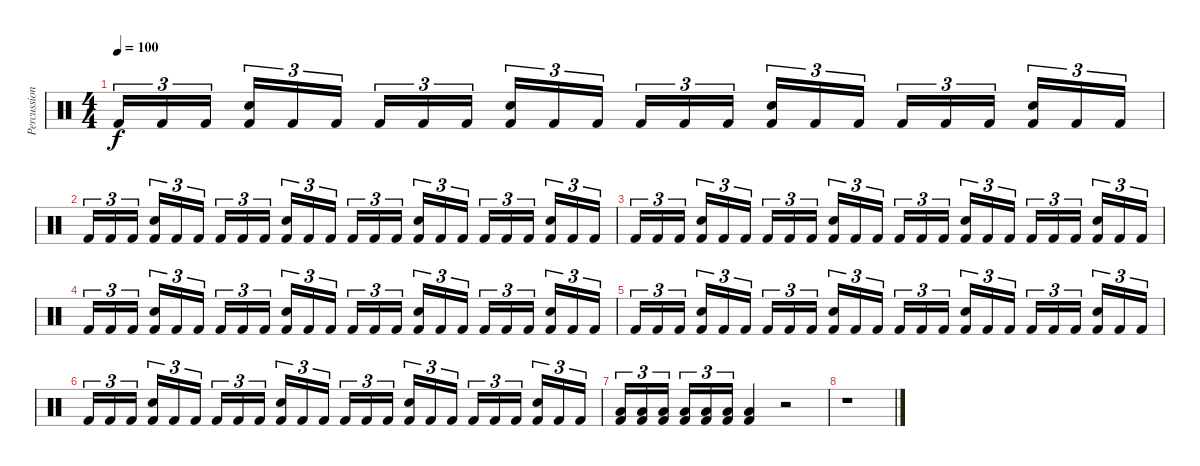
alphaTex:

\track ("Percussions" "Percussion") {instrument percussion}
\staff {score}
\articulation defaults
\ts (4 4)
\tempo 100
\clef neutral
\ks c "Kick (hit) 2".16{tu (3 2) dy f} "Kick (hit) 2".16{tu (3 2)} "Kick (hit) 2".16{tu (3 2)}
("Electric Snare (hit)" "Kick (hit) 2").16{tu (3 2)} "Kick (hit) 2".16{tu (3 2)} "Kick (hit) 2".16{tu (3 2)} "Kick (hit) 2".16{tu (3 2)} "Kick (hit) 2".16{tu (3 2)} "Kick (hit) 2".16{tu (3 2)} ("Electric Snare (hit)" "Kick (hit) 2").16{tu (3 2)} "Kick (hit) 2".16{tu (3 2)} "Kick (hit) 2".16{tu (3 2)} "Kick (hit) 2".16{tu (3 2)} "Kick (hit) 2".16{tu (3 2)} "Kick (hit) 2".16{tu (3 2)} ("Electric Snare (hit)" "Kick (hit) 2").16{tu (3 2)} "Kick (hit) 2".16{tu (3 2)} "Kick (hit) 2".16{tu (3 2)} "Kick (hit) 2".16{tu (3 2)} "Kick (hit) 2".16{tu (3 2)} "Kick (hit) 2".16{tu (3 2)} ("Electric Snare (hit)" "Kick (hit) 2").16{tu (3 2)} "Kick (hit) 2".16{tu (3 2)} "Kick (hit) 2".16{tu (3 2)} |
"Kick (hit) 2".16{tu (3 2)} "Kick (hit) 2".16{tu (3 2)} "Kick (hit) 2".16{tu (3 2)} ("Electric Snare (hit)" "Kick (hit) 2").16{tu (3 2)} "Kick (hit) 2".16{tu (3 2)} "Kick (hit) 2".16{tu (3 2)} "Kick (hit) 2".16{tu (3 2)} "Kick (hit) 2".16{tu (3 2)} "Kick (hit) 2".16{tu (3 2)} ("Electric Snare (hit)" "Kick (hit) 2").16{tu (3 2)} "Kick (hit) 2".16{tu (3 2)} "Kick (hit) 2".16{tu (3 2)} "Kick (hit) 2".16{tu (3 2)} "Kick (hit) 2".16{tu (3 2)} "Kick (hit) 2".16{tu (3 2)} ("Electric Snare (hit)" "Kick (hit) 2").16{tu (3 2)} "Kick (hit) 2".16{tu (3 2)} "Kick (hit) 2".16{tu (3 2)} "Kick (hit) 2".16{tu (3 2)} "Kick (hit) 2".16{tu (3 2)} "Kick (hit) 2".16{tu (3 2)} ("Electric Snare (hit)" "Kick (hit) 2").16{tu (3 2)} "Kick (hit) 2".16{tu (3 2)} "Kick (hit) 2".16{tu (3 2)} |
"Kick (hit) 2".16{tu (3 2)} "Kick (hit) 2".16{tu (3 2)} "Kick (hit) 2".16{tu (3 2)} ("Electric Snare (hit)" "Kick (hit) 2").16{tu (3 2)} "Kick (hit) 2".16{tu (3 2)} "Kick (hit) 2".16{tu (3 2)} "Kick (hit) 2".16{tu (3 2)} "Kick (hit) 2".16{tu (3 2)} "Kick (hit) 2".16{tu (3 2)} ("Electric Snare (hit)" "Kick (hit) 2").16{tu (3 2)} "Kick (hit) 2".16{tu (3 2)} "Kick (hit) 2".16{tu (3 2)} "Kick (hit) 2".16{tu (3 2)} "Kick (hit) 2".16{tu (3 2)} "Kick (hit) 2".16{tu (3 2)} ("Electric Snare (hit)" "Kick (hit) 2").16{tu (3 2)} "Kick (hit) 2".16{tu (3 2)} "Kick (hit) 2".16{tu (3 2)} "Kick (hit) 2".16{tu (3 2)} "Kick (hit) 2".16{tu (3 2)} "Kick (hit) 2".16{tu (3 2)} ("Electric Snare (hit)" "Kick (hit) 2").16{tu (3 2)} "Kick (hit) 2".16{tu (3 2)} "Kick (hit) 2".16{tu (3 2)} |
"Kick (hit) 2".16{tu (3 2)} "Kick (hit) 2".16{tu (3 2)} "Kick (hit) 2".16{tu (3 2)} ("Electric Snare (hit)" "Kick (hit) 2").16{tu (3 2)} "Kick (hit) 2".16{tu (3 2)} "Kick (hit) 2".16{tu (3 2)} "Kick (hit) 2".16{tu (3 2)} "Kick (hit) 2".16{tu (3 2)} "Kick (hit) 2".16{tu (3 2)} ("Electric Snare (hit)" "Kick (hit) 2").16{tu (3 2)} "Kick (hit) 2".16{tu (3 2)} "Kick (hit) 2".16{tu (3 2)} "Kick (hit) 2".16{tu (3 2)} "Kick (hit) 2".16{tu (3 2)} "Kick (hit) 2".16{tu (3 2)} ("Electric Snare (hit)" "Kick (hit) 2").16{tu (3 2)} "Kick (hit) 2".16{tu (3 2)} "Kick (hit) 2".16{tu (3 2)} "Kick (hit) 2".16{tu (3 2)} "Kick (hit) 2".16{tu (3 2)} "Kick (hit) 2".16{tu (3 2)} ("Electric Snare (hit)" "Kick (hit) 2").16{tu (3 2)} "Kick (hit) 2".16{tu (3 2)} "Kick (hit) 2".16{tu (3 2)} |
"Kick (hit) 2".16{tu (3 2)} "Kick (hit) 2".16{tu (3 2)} "Kick (hit) 2".16{tu (3 2)} ("Electric Snare (hit)" "Kick (hit) 2").16{tu (3 2)} "Kick (hit) 2".16{tu (3 2)} "Kick (hit) 2".16{tu (3 2)} "Kick (hit) 2".16{tu (3 2)} "Kick (hit) 2".16{tu (3 2)} "Kick (hit) 2".16{tu (3 2)} ("Electric Snare (hit)" "Kick (hit) 2").16{tu (3 2)} "Kick (hit) 2".16{tu (3 2)} "Kick (hit) 2".16{tu (3 2)} "Kick (hit) 2".16{tu (3 2)} "Kick (hit) 2".16{tu (3 2)} "Kick (hit) 2".16{tu (3 2)} ("Electric Snare (hit)" "Kick (hit) 2").16{tu (3 2)} "Kick (hit) 2".16{tu (3 2)} "Kick (hit) 2".16{tu (3 2)} "Kick (hit) 2".16{tu (3 2)} "Kick (hit) 2".16{tu (3 2)} "Kick (hit) 2".16{tu (3 2)} ("Electric Snare (hit)" "Kick (hit) 2").16{tu (3 2)} "Kick (hit) 2".16{tu (3 2)} "Kick (hit) 2".16{tu (3 2)} |
"Kick (hit) 2".16{tu (3 2)} "Kick (hit) 2".16{tu (3 2)} "Kick (hit) 2".16{tu (3 2)} ("Electric Snare (hit)" "Kick (hit) 2").16{tu (3 2)} "Kick (hit) 2".16{tu (3 2)} "Kick (hit) 2".16{tu (3 2)} "Kick (hit) 2".16{tu (3 2)} "Kick (hit) 2".16{tu (3 2)} "Kick (hit) 2".16{tu (3 2)} ("Electric Snare (hit)" "Kick (hit) 2").16{tu (3 2)} "Kick (hit) 2".16{tu (3 2)} "Kick (hit) 2".16{tu (3 2)} "Kick (hit) 2".16{tu (3 2)} "Kick (hit) 2".16{tu (3 2)} "Kick (hit) 2".16{tu (3 2)} ("Electric Snare (hit)" "Kick (hit) 2").16{tu (3 2)} "Kick (hit) 2".16{tu (3 2)} "Kick (hit) 2".16{tu (3 2)} "Kick (hit) 2".16{tu (3 2)} "Kick (hit) 2".16{tu (3 2)} "Kick (hit) 2".16{tu (3 2)} ("Electric Snare (hit)" "Kick (hit) 2").16{tu (3 2)} "Kick (hit) 2".16{tu (3 2)} "Kick (hit) 2".16{tu (3 2)} |
("Low Tom (hit)" "Kick (hit) 2").16{tu (3 2)} ("Low Tom (hit)" "Kick (hit) 2").16{tu (3 2)} ("Low Tom (hit)" "Kick (hit) 2").16{tu (3 2)} ("Low Tom (hit)" "Kick (hit) 2").16{tu (3 2)} ("Low Tom (hit)" "Kick (hit) 2").16{tu (3 2)} ("Low Tom (hit)" "Kick (hit) 2").16{tu (3 2)} ("Low Tom (hit)" "Kick (hit) 2").4 r.2 |
r.1
